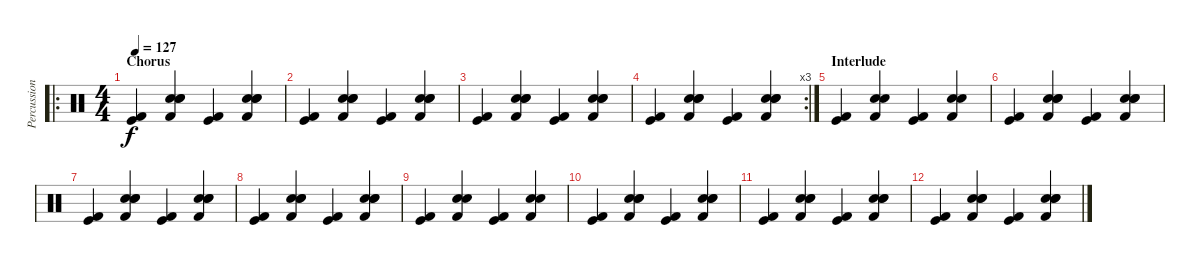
\track ("Percussions" "Percussion") {instrument percussion}
\staff {score}
\articulation defaults
\ro
\ts (4 4)
\section ("" "Chorus")
\tempo 127
\clef neutral
\ks c
("Kick (hit) 2" "Kick (hit)").4{dy f} ("Electric Snare (hit)" "Kick (hit) 2" "Electric Snare (hit)" "Snare (hit) 2").4 ("Kick (hit) 2" "Kick (hit)").4 ("Electric Snare (hit)" "Kick (hit) 2" "Electric Snare (hit)" "Snare (hit) 2").4 |
("Kick (hit) 2" "Kick (hit)").4 ("Electric Snare (hit)" "Kick (hit) 2" "Electric Snare (hit)" "Snare (hit) 2").4 ("Kick (hit) 2" "Kick (hit)").4 ("Electric Snare (hit)" "Kick (hit) 2" "Electric Snare (hit)" "Snare (hit) 2").4 |
("Kick (hit) 2" "Kick (hit)").4 ("Electric Snare (hit)" "Kick (hit) 2" "Electric Snare (hit)" "Snare (hit) 2").4 ("Kick (hit) 2" "Kick (hit)").4 ("Electric Snare (hit)" "Kick (hit) 2" "Electric Snare (hit)" "Snare (hit) 2").4 |
\rc 3
("Kick (hit) 2" "Kick (hit)").4 ("Electric Snare (hit)" "Kick (hit) 2" "Electric Snare (hit)" "Snare (hit) 2").4 ("Kick (hit) 2" "Kick (hit)").4 ("Electric Snare (hit)" "Kick (hit) 2" "Electric Snare (hit)" "Snare (hit) 2").4 |
\section ("" "Interlude")
("Kick (hit) 2" "Kick (hit)").4 ("Kick (hit) 2" "Electric Snare (hit)" "Snare (hit) 2").4 ("Kick (hit) 2" "Kick (hit)").4 ("Kick (hit) 2" "Electric Snare (hit)" "Snare (hit) 2").4 |
("Kick (hit) 2" "Kick (hit)").4 ("Electric Snare (hit)" "Kick (hit) 2" "Electric Snare (hit)" "Snare (hit) 2").4 ("Kick (hit) 2" "Kick (hit)").4 ("Electric Snare (hit)" "Kick (hit) 2" "Electric Snare (hit)" "Snare (hit) 2").4 |
("Kick (hit) 2" "Kick (hit)").4 ("Electric Snare (hit)" "Kick (hit) 2" "Electric Snare (hit)" "Snare (hit) 2").4 ("Kick (hit) 2" "Kick (hit)").4 ("Electric Snare (hit)" "Kick (hit) 2" "Electric Snare (hit)" "Snare (hit) 2").4 |
("Kick (hit) 2" "Kick (hit)").4 ("Electric Snare (hit)" "Kick (hit) 2" "Electric Snare (hit)" "Snare (hit) 2").4 ("Kick (hit) 2" "Kick (hit)").4 ("Electric Snare (hit)" "Kick (hit) 2" "Electric Snare (hit)" "Snare (hit) 2").4 |
("Kick (hit) 2" "Kick (hit)").4 ("Kick (hit) 2" "Electric Snare (hit)" "Snare (hit) 2").4 ("Kick (hit) 2" "Kick (hit)").4 ("Kick (hit) 2" "Electric Snare (hit)" "Snare (hit) 2").4 |
("Kick (hit) 2" "Kick (hit)").4 ("Electric Snare (hit)" "Kick (hit) 2" "Electric Snare (hit)" "Snare (hit) 2").4 ("Kick (hit) 2" "Kick (hit)").4 ("Electric Snare (hit)" "Kick (hit) 2" "Electric Snare (hit)" "Snare (hit) 2").4 |
("Kick (hit) 2" "Kick (hit)").4 ("Electric Snare (hit)" "Kick (hit) 2" "Electric Snare (hit)" "Snare (hit) 2").4 ("Kick (hit) 2" "Kick (hit)").4 ("Electric Snare (hit)" "Kick (hit) 2" "Electric Snare (hit)" "Snare (hit) 2").4 |
("Kick (hit) 2" "Kick (hit)").4 ("Electric Snare (hit)" "Kick (hit) 2" "Electric Snare (hit)" "Snare (hit) 2").4 ("Kick (hit) 2" "Kick (hit)").4 ("Electric Snare (hit)" "Kick (hit) 2" "Electric Snare (hit)" "Snare (hit) 2").4
